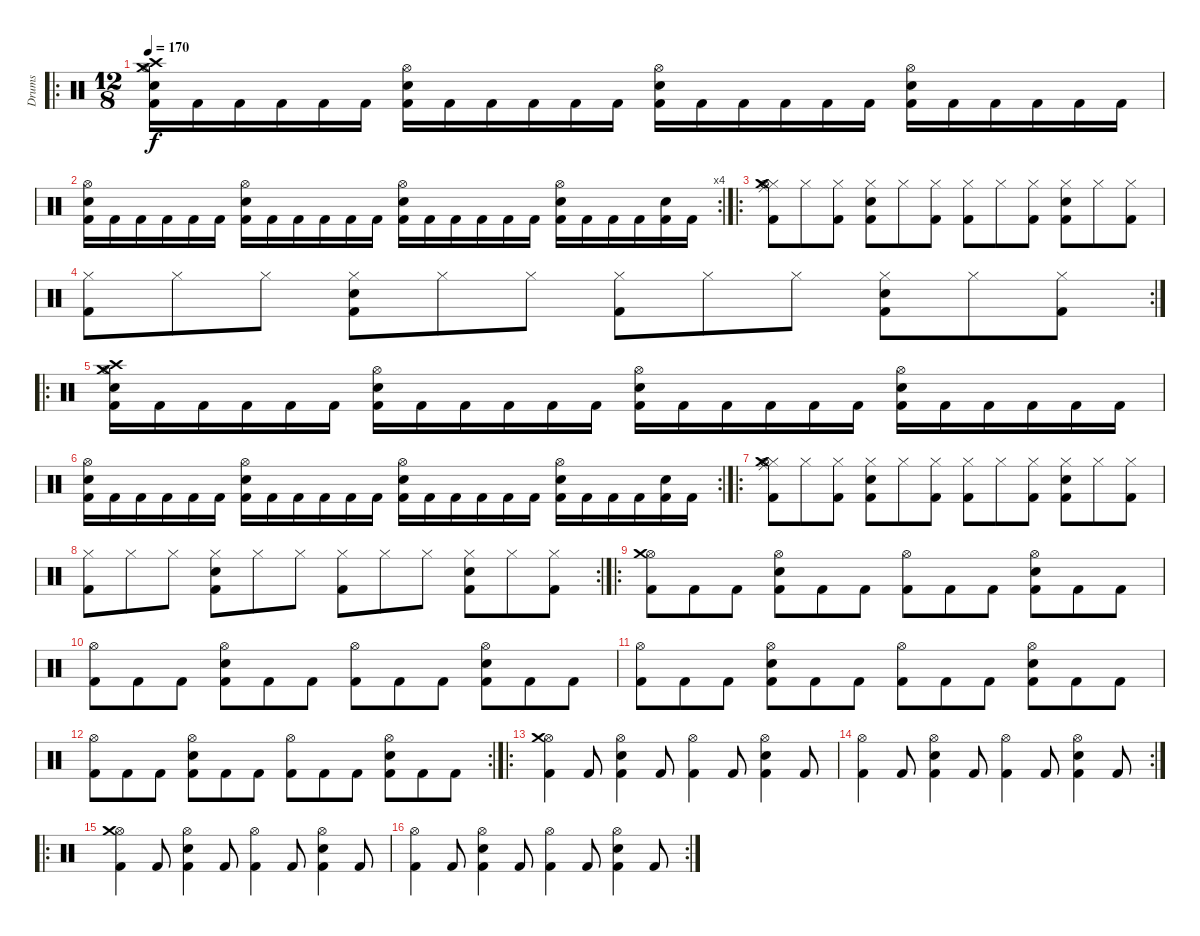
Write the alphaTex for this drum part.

\track ("Drums" "Drums") {instrument percussion}
\staff {score}
\articulation defaults
\ro
\ts (12 8)
\tempo 170
\clef neutral
\ks c
("Kick (hit) 2" "Electric Snare (hit)" "Crash medium (hit)" "Hi-Hat (open)" "Crash high (hit)").16{dy f} "Kick (hit) 2".16 "Kick (hit) 2".16 "Kick (hit) 2".16 "Kick (hit) 2".16 "Kick (hit) 2".16 ("Kick (hit) 2" "Electric Snare (hit)" "Hi-Hat (open)").16 "Kick (hit) 2".16 "Kick (hit) 2".16 "Kick (hit) 2".16 "Kick (hit) 2".16 "Kick (hit) 2".16 ("Kick (hit) 2" "Electric Snare (hit)" "Hi-Hat (open)").16 "Kick (hit) 2".16 "Kick (hit) 2".16 "Kick (hit) 2".16 "Kick (hit) 2".16 "Kick (hit) 2".16 ("Kick (hit) 2" "Electric Snare (hit)" "Hi-Hat (open)").16 "Kick (hit) 2".16 "Kick (hit) 2".16 "Kick (hit) 2".16 "Kick (hit) 2".16 "Kick (hit) 2".16 |
\rc 4
("Kick (hit) 2" "Electric Snare (hit)" "Hi-Hat (open)").16 "Kick (hit) 2".16 "Kick (hit) 2".16 "Kick (hit) 2".16 "Kick (hit) 2".16 "Kick (hit) 2".16 ("Kick (hit) 2" "Electric Snare (hit)" "Hi-Hat (open)").16 "Kick (hit) 2".16 "Kick (hit) 2".16 "Kick (hit) 2".16 "Kick (hit) 2".16 "Kick (hit) 2".16 ("Kick (hit) 2" "Electric Snare (hit)" "Hi-Hat (open)").16 "Kick (hit) 2".16 "Kick (hit) 2".16 "Kick (hit) 2".16 "Kick (hit) 2".16 "Kick (hit) 2".16 ("Kick (hit) 2" "Electric Snare (hit)" "Hi-Hat (open)").16 "Kick (hit) 2".16 "Kick (hit) 2".16 "Kick (hit) 2".16 ("Kick (hit) 2" "Electric Snare (hit)").16 "Kick (hit) 2".16 |
\ro
("Kick (hit) 2" "Hi-Hat (closed)" "Hi-Hat (open)" "Crash medium (hit)" "Ride (middle)").8 "Hi-Hat (closed)".8 ("Kick (hit) 2" "Hi-Hat (closed)").8 ("Kick (hit) 2" "Hi-Hat (closed)" "Electric Snare (hit)").8 "Hi-Hat (closed)".8 ("Kick (hit) 2" "Hi-Hat (closed)").8 ("Kick (hit) 2" "Hi-Hat (closed)").8 "Hi-Hat (closed)".8 ("Kick (hit) 2" "Hi-Hat (closed)").8 ("Kick (hit) 2" "Hi-Hat (closed)" "Electric Snare (hit)").8 "Hi-Hat (closed)".8 ("Kick (hit) 2" "Hi-Hat (closed)").8 |
\rc 2
("Kick (hit) 2" "Hi-Hat (closed)").8 "Hi-Hat (closed)".8 "Hi-Hat (closed)".8 ("Kick (hit) 2" "Hi-Hat (closed)" "Electric Snare (hit)").8 "Hi-Hat (closed)".8 "Hi-Hat (closed)".8 ("Kick (hit) 2" "Hi-Hat (closed)").8 "Hi-Hat (closed)".8 "Hi-Hat (closed)".8 ("Kick (hit) 2" "Hi-Hat (closed)" "Electric Snare (hit)").8 "Hi-Hat (closed)".8 ("Kick (hit) 2" "Hi-Hat (closed)").8 |
\ro
("Kick (hit) 2" "Electric Snare (hit)" "Crash medium (hit)" "Hi-Hat (open)" "Crash high (hit)").16 "Kick (hit) 2".16 "Kick (hit) 2".16 "Kick (hit) 2".16 "Kick (hit) 2".16 "Kick (hit) 2".16 ("Kick (hit) 2" "Electric Snare (hit)" "Hi-Hat (open)").16 "Kick (hit) 2".16 "Kick (hit) 2".16 "Kick (hit) 2".16 "Kick (hit) 2".16 "Kick (hit) 2".16 ("Kick (hit) 2" "Electric Snare (hit)" "Hi-Hat (open)").16 "Kick (hit) 2".16 "Kick (hit) 2".16 "Kick (hit) 2".16 "Kick (hit) 2".16 "Kick (hit) 2".16 ("Kick (hit) 2" "Electric Snare (hit)" "Hi-Hat (open)").16 "Kick (hit) 2".16 "Kick (hit) 2".16 "Kick (hit) 2".16 "Kick (hit) 2".16 "Kick (hit) 2".16 |
\rc 2
("Kick (hit) 2" "Electric Snare (hit)" "Hi-Hat (open)").16 "Kick (hit) 2".16 "Kick (hit) 2".16 "Kick (hit) 2".16 "Kick (hit) 2".16 "Kick (hit) 2".16 ("Kick (hit) 2" "Electric Snare (hit)" "Hi-Hat (open)").16 "Kick (hit) 2".16 "Kick (hit) 2".16 "Kick (hit) 2".16 "Kick (hit) 2".16 "Kick (hit) 2".16 ("Kick (hit) 2" "Electric Snare (hit)" "Hi-Hat (open)").16 "Kick (hit) 2".16 "Kick (hit) 2".16 "Kick (hit) 2".16 "Kick (hit) 2".16 "Kick (hit) 2".16 ("Kick (hit) 2" "Electric Snare (hit)" "Hi-Hat (open)").16 "Kick (hit) 2".16 "Kick (hit) 2".16 "Kick (hit) 2".16 ("Kick (hit) 2" "Electric Snare (hit)").16 "Kick (hit) 2".16 |
\ro
("Kick (hit) 2" "Hi-Hat (closed)" "Hi-Hat (open)" "Crash medium (hit)" "Ride (middle)").8 "Hi-Hat (closed)".8 ("Kick (hit) 2" "Hi-Hat (closed)").8 ("Kick (hit) 2" "Hi-Hat (closed)" "Electric Snare (hit)").8 "Hi-Hat (closed)".8 ("Kick (hit) 2" "Hi-Hat (closed)").8 ("Kick (hit) 2" "Hi-Hat (closed)").8 "Hi-Hat (closed)".8 ("Kick (hit) 2" "Hi-Hat (closed)").8 ("Kick (hit) 2" "Hi-Hat (closed)" "Electric Snare (hit)").8 "Hi-Hat (closed)".8 ("Kick (hit) 2" "Hi-Hat (closed)").8 |
\rc 2
("Kick (hit) 2" "Hi-Hat (closed)").8 "Hi-Hat (closed)".8 "Hi-Hat (closed)".8 ("Kick (hit) 2" "Hi-Hat (closed)" "Electric Snare (hit)").8 "Hi-Hat (closed)".8 "Hi-Hat (closed)".8 ("Kick (hit) 2" "Hi-Hat (closed)").8 "Hi-Hat (closed)".8 "Hi-Hat (closed)".8 ("Kick (hit) 2" "Hi-Hat (closed)" "Electric Snare (hit)").8 "Hi-Hat (closed)".8 ("Kick (hit) 2" "Hi-Hat (closed)").8 |
\ro
("Kick (hit) 2" "Hi-Hat (open)" "Crash medium (hit)").8 "Kick (hit) 2".8 "Kick (hit) 2".8 ("Kick (hit) 2" "Electric Snare (hit)" "Hi-Hat (open)").8 "Kick (hit) 2".8 "Kick (hit) 2".8 ("Kick (hit) 2" "Hi-Hat (open)").8 "Kick (hit) 2".8 "Kick (hit) 2".8 ("Kick (hit) 2" "Electric Snare (hit)" "Hi-Hat (open)").8 "Kick (hit) 2".8 "Kick (hit) 2".8 |
("Kick (hit) 2" "Hi-Hat (open)").8 "Kick (hit) 2".8 "Kick (hit) 2".8 ("Kick (hit) 2" "Electric Snare (hit)" "Hi-Hat (open)").8 "Kick (hit) 2".8 "Kick (hit) 2".8 ("Kick (hit) 2" "Hi-Hat (open)").8 "Kick (hit) 2".8 "Kick (hit) 2".8 ("Kick (hit) 2" "Electric Snare (hit)" "Hi-Hat (open)").8 "Kick (hit) 2".8 "Kick (hit) 2".8 |
("Kick (hit) 2" "Hi-Hat (open)").8 "Kick (hit) 2".8 "Kick (hit) 2".8 ("Kick (hit) 2" "Electric Snare (hit)" "Hi-Hat (open)").8 "Kick (hit) 2".8 "Kick (hit) 2".8 ("Kick (hit) 2" "Hi-Hat (open)").8 "Kick (hit) 2".8 "Kick (hit) 2".8 ("Kick (hit) 2" "Electric Snare (hit)" "Hi-Hat (open)").8 "Kick (hit) 2".8 "Kick (hit) 2".8 |
\rc 2
("Kick (hit) 2" "Hi-Hat (open)").8 "Kick (hit) 2".8 "Kick (hit) 2".8 ("Kick (hit) 2" "Electric Snare (hit)" "Hi-Hat (open)").8 "Kick (hit) 2".8 "Kick (hit) 2".8 ("Kick (hit) 2" "Hi-Hat (open)").8 "Kick (hit) 2".8 "Kick (hit) 2".8 ("Kick (hit) 2" "Electric Snare (hit)" "Hi-Hat (open)").8 "Kick (hit) 2".8 "Kick (hit) 2".8 |
\ro
("Kick (hit) 2" "Hi-Hat (open)" "Crash medium (hit)").4 "Kick (hit) 2".8 ("Kick (hit) 2" "Electric Snare (hit)" "Hi-Hat (open)").4 "Kick (hit) 2".8 ("Kick (hit) 2" "Hi-Hat (open)").4 "Kick (hit) 2".8 ("Kick (hit) 2" "Electric Snare (hit)" "Hi-Hat (open)").4 "Kick (hit) 2".8 |
\rc 2
("Kick (hit) 2" "Hi-Hat (open)").4 "Kick (hit) 2".8 ("Kick (hit) 2" "Electric Snare (hit)" "Hi-Hat (open)").4 "Kick (hit) 2".8 ("Kick (hit) 2" "Hi-Hat (open)").4 "Kick (hit) 2".8 ("Kick (hit) 2" "Electric Snare (hit)" "Hi-Hat (open)").4 "Kick (hit) 2".8 |
\ro
("Kick (hit) 2" "Hi-Hat (open)" "Crash medium (hit)").4 "Kick (hit) 2".8 ("Kick (hit) 2" "Electric Snare (hit)" "Hi-Hat (open)").4 "Kick (hit) 2".8 ("Kick (hit) 2" "Hi-Hat (open)").4 "Kick (hit) 2".8 ("Kick (hit) 2" "Electric Snare (hit)" "Hi-Hat (open)").4 "Kick (hit) 2".8 |
\rc 2
("Kick (hit) 2" "Hi-Hat (open)").4 "Kick (hit) 2".8 ("Kick (hit) 2" "Electric Snare (hit)" "Hi-Hat (open)").4 "Kick (hit) 2".8 ("Kick (hit) 2" "Hi-Hat (open)").4 "Kick (hit) 2".8 ("Kick (hit) 2" "Electric Snare (hit)" "Hi-Hat (open)").4 "Kick (hit) 2".8
